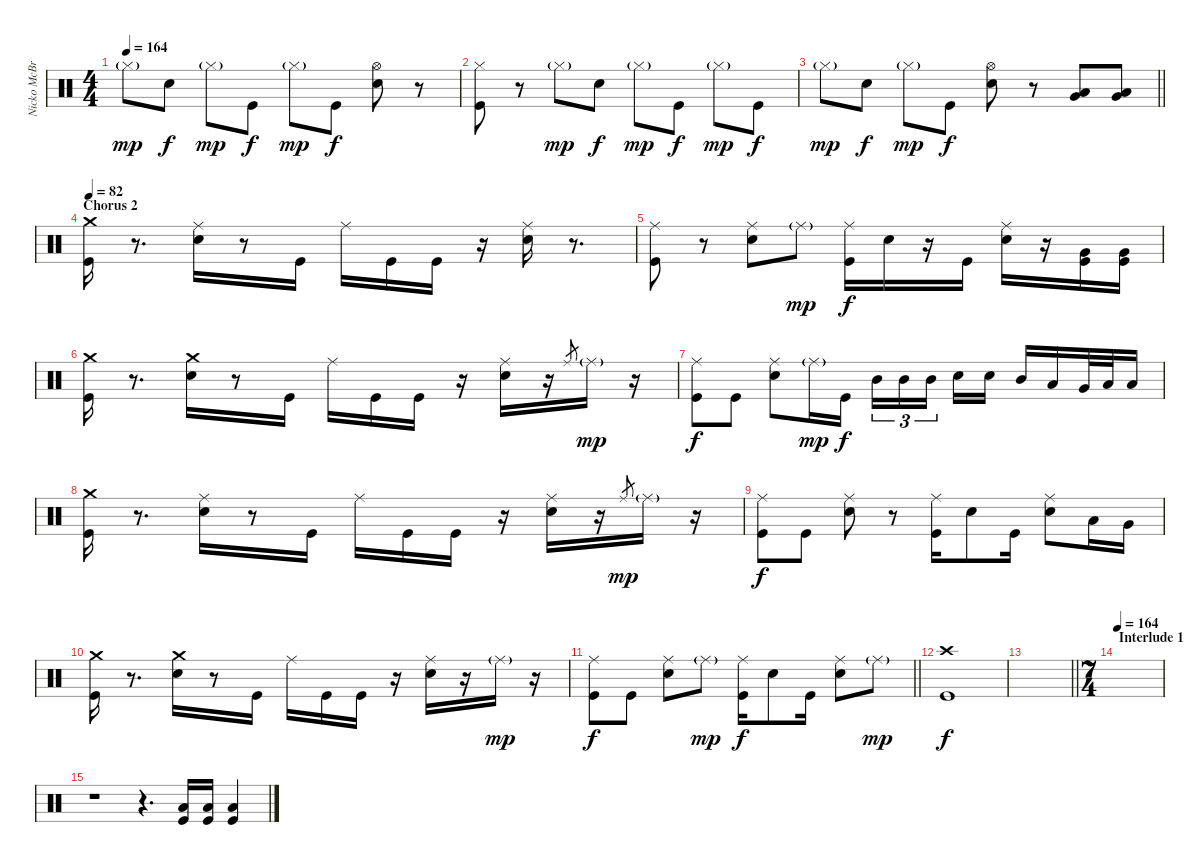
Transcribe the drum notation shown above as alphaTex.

\track ("Nicko McBrain" "Nicko McBr") {instrument percussion}
\staff {score}
\articulation defaults
\ts (4 4)
\tempo 164
\clef neutral
\ks c "Hi-Hat (closed)"{g}.8{dy mp} "Electric Snare (hit)".8{dy f} "Hi-Hat (closed)"{g}.8{dy mp} "Kick (hit)".8{dy f} "Hi-Hat (closed)"{g}.8{dy mp} "Kick (hit)".8{dy f}
("Hi-Hat (open)" "Electric Snare (hit)").8 r.8 |
("Hi-Hat (closed)" "Kick (hit)").8 r.8 "Hi-Hat (closed)"{g}.8{dy mp} "Electric Snare (hit)".8{dy f} "Hi-Hat (closed)"{g}.8{dy mp} "Kick (hit)".8{dy f} "Hi-Hat (closed)"{g}.8{dy mp} "Kick (hit)".8{dy f} |
\barLineRight lightlight "Hi-Hat (closed)"{g}.8{dy mp} "Electric Snare (hit)".8{dy f} "Hi-Hat (closed)"{g}.8{dy mp} "Kick (hit)".8{dy f}
("Hi-Hat (open)" "Electric Snare (hit)").8 r.8 ("Low Tom (hit)" "Very Low Tom (hit)").8 ("Low Tom (hit)" "Very Low Tom (hit)").8 |
\section ("" "Chorus 2")
\tempo 82
("Crash medium (hit)" "Kick (hit)").16 r.8{d} ("Ride (middle)" "Electric Snare (hit)").16 r.8 "Kick (hit)".16 "Ride (middle)".16 "Kick (hit)".16 "Kick (hit)".16 r.16 ("Ride (middle)" "Electric Snare (hit)").16 r.8{d} |
("Ride (middle)" "Kick (hit)").8 r.8 ("Ride (middle)" "Electric Snare (hit)").8 "Ride (middle)"{g}.8{dy mp} ("Ride (middle)" "Kick (hit)").16{dy f} "Electric Snare (hit)".16 r.16 "Kick (hit)".16 ("Ride (middle)" "Electric Snare (hit)").16 r.16 ("Very Low Tom (hit)" "Kick (hit)").16 ("Very Low Tom (hit)" "Kick (hit)").16 |
("Crash medium (hit)" "Kick (hit)").16 r.8{d} ("Crash medium (hit)" "Electric Snare (hit)").16 r.8 "Kick (hit)".16 "Ride (middle)".16 "Kick (hit)".16 "Kick (hit)".16 r.16 ("Ride (middle)" "Electric Snare (hit)").16 r.16 "Ride (middle)".8{gr} "Ride (middle)"{g}.16{dy mp} r.16 |
("Ride (middle)" "Kick (hit)").8{dy f} "Kick (hit)".8 ("Ride (middle)" "Electric Snare (hit)").8 "Ride (middle)"{g}.16{dy mp} "Kick (hit)".16{dy f} "Mid Tom (hit)".16{tu (3 2)} "Mid Tom (hit)".16{tu (3 2)} "Mid Tom (hit)".16{tu (3 2) beam splitsecondary} "Electric Snare (hit)".16 "Electric Snare (hit)".16 "Mid Tom (hit)".16 "Low Tom (hit)".16 "Very Low Tom (hit)".32 "Low Tom (hit)".32 "Low Floor Tom (hit)".16 |
("Crash medium (hit)" "Kick (hit)").16 r.8{d} ("Ride (middle)" "Electric Snare (hit)").16 r.8 "Kick (hit)".16 "Ride (middle)".16 "Kick (hit)".16 "Kick (hit)".16 r.16 ("Ride (middle)" "Electric Snare (hit)").16 r.16 "Ride (middle)".8{gr dy mp} "Ride (middle)"{g}.16 r.16 |
("Ride (middle)" "Kick (hit)").8{dy f} "Kick (hit)".8 ("Ride (middle)" "Electric Snare (hit)").8 r.8 ("Ride (middle)" "Kick (hit)").16 "Electric Snare (hit)".8 "Kick (hit)".16 ("Ride (middle)" "Electric Snare (hit)").8 "Low Tom (hit)".16 "Very Low Tom (hit)".16 |
("Crash medium (hit)" "Kick (hit)").16 r.8{d} ("Crash medium (hit)" "Electric Snare (hit)").16 r.8 "Kick (hit)".16 "Ride (middle)".16 "Kick (hit)".16 "Kick (hit)".16 r.16 ("Ride (middle)" "Electric Snare (hit)").16 r.16 "Ride (middle)"{g}.16{dy mp} r.16 |
\barLineRight lightlight
("Ride (middle)" "Kick (hit)").8{dy f} "Kick (hit)".8 ("Ride (middle)" "Electric Snare (hit)").8 "Ride (middle)"{g}.8{dy mp} ("Ride (middle)" "Kick (hit)").16{dy f} "Electric Snare (hit)".8 "Kick (hit)".16 ("Ride (middle)" "Electric Snare (hit)").8 "Ride (middle)"{g}.8{dy mp} |
("Crash high (hit)" "Kick (hit)").1{dy f} |
\barLineRight lightlight
|
\ts (7 4)
\section ("" "Interlude 1")
\tempo 164
|
r.1 r.4{d} ("Low Floor Tom (hit)" "Kick (hit)").16 ("Low Floor Tom (hit)" "Kick (hit)").16 ("Low Floor Tom (hit)" "Kick (hit)").4
